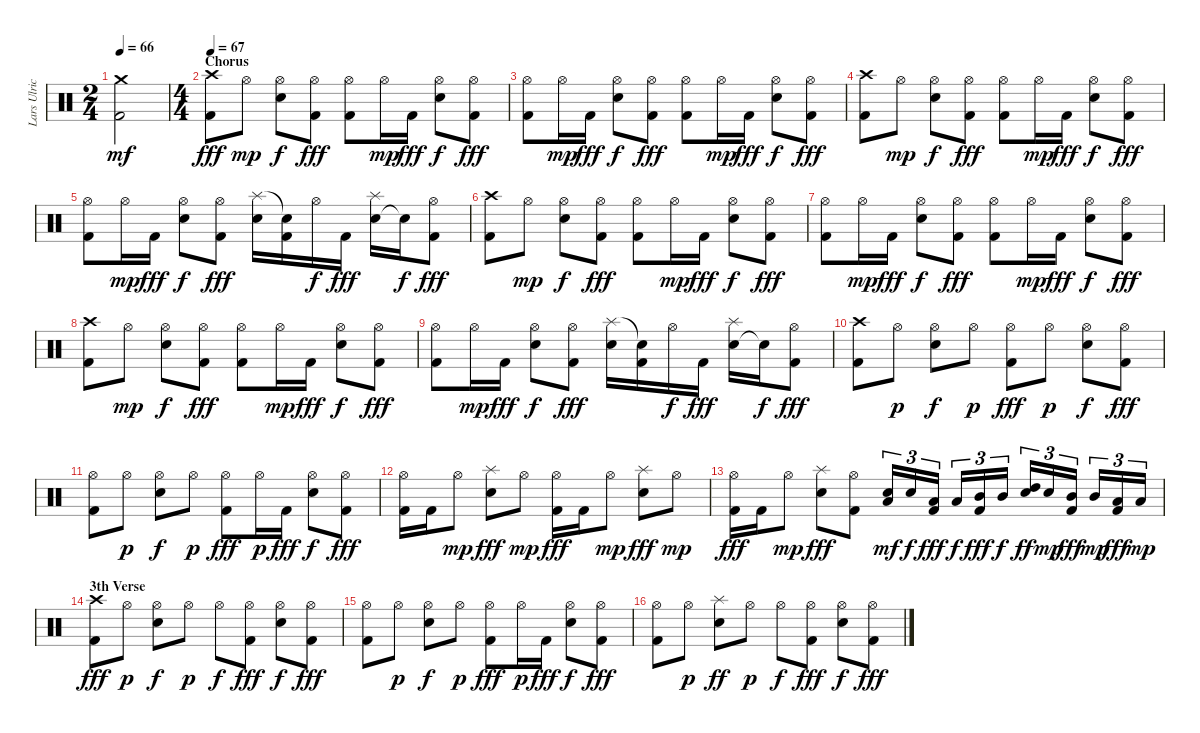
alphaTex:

\track ("Lars Ulrich (Drums)" "Lars Ulric") {instrument percussion}
\staff {score}
\articulation defaults
\ts (2 4)
\tempo 66
\clef neutral
\ks c
("Kick (hit) 2" "Crash medium (hit)").2{dy mf} |
\ts (4 4)
\section ("" "Chorus")
\tempo 67
("Kick (hit) 2" "Crash high (hit)").8{dy fff} "Hi-Hat (open)".8{dy mp} ("Hi-Hat (open)" "Snare (hit) 2").8{dy f} ("Hi-Hat (open)" "Kick (hit) 2").8{dy fff} ("Hi-Hat (open)" "Kick (hit) 2").8 "Hi-Hat (open)".16{dy mp} "Kick (hit) 2".16{dy fff} ("Hi-Hat (open)" "Snare (hit) 2").8{dy f} ("Hi-Hat (open)" "Kick (hit) 2").8{dy fff} |
("Hi-Hat (open)" "Kick (hit) 2").8 "Hi-Hat (open)".16{dy mp} "Kick (hit) 2".16{dy fff} ("Hi-Hat (open)" "Snare (hit) 2").8{dy f} ("Hi-Hat (open)" "Kick (hit) 2").8{dy fff} ("Hi-Hat (open)" "Kick (hit) 2").8 "Hi-Hat (open)".16{dy mp} "Kick (hit) 2".16{dy fff} ("Hi-Hat (open)" "Snare (hit) 2").8{dy f} ("Hi-Hat (open)" "Kick (hit) 2").8{dy fff} |
("Kick (hit) 2" "Crash high (hit)").8 "Hi-Hat (open)".8{dy mp} ("Hi-Hat (open)" "Snare (hit) 2").8{dy f} ("Hi-Hat (open)" "Kick (hit) 2").8{dy fff} ("Hi-Hat (open)" "Kick (hit) 2").8 "Hi-Hat (open)".16{dy mp} "Kick (hit) 2".16{dy fff} ("Hi-Hat (open)" "Snare (hit) 2").8{dy f} ("Hi-Hat (open)" "Kick (hit) 2").8{dy fff} |
("Hi-Hat (open)" "Kick (hit) 2").8 "Hi-Hat (open)".16{dy mp} "Kick (hit) 2".16{dy fff} ("Hi-Hat (open)" "Snare (hit) 2").8{dy f} ("Hi-Hat (open)" "Kick (hit) 2").8{dy fff} ("Snare (hit) 2" "Splash (hit)").16 ("Kick (hit) 2" "Snare (hit)"{t}).16 "Hi-Hat (open)".16{dy f} "Kick (hit) 2".16{dy fff} ("Snare (hit) 2" "Splash (hit)").16 "Snare (hit)"{t}.16{dy f} ("Hi-Hat (open)" "Kick (hit) 2").8{dy fff} |
("Kick (hit) 2" "Crash high (hit)").8 "Hi-Hat (open)".8{dy mp} ("Hi-Hat (open)" "Snare (hit) 2").8{dy f} ("Hi-Hat (open)" "Kick (hit) 2").8{dy fff} ("Hi-Hat (open)" "Kick (hit) 2").8 "Hi-Hat (open)".16{dy mp} "Kick (hit) 2".16{dy fff} ("Hi-Hat (open)" "Snare (hit) 2").8{dy f} ("Hi-Hat (open)" "Kick (hit) 2").8{dy fff} |
("Hi-Hat (open)" "Kick (hit) 2").8 "Hi-Hat (open)".16{dy mp} "Kick (hit) 2".16{dy fff} ("Hi-Hat (open)" "Snare (hit) 2").8{dy f} ("Hi-Hat (open)" "Kick (hit) 2").8{dy fff} ("Hi-Hat (open)" "Kick (hit) 2").8 "Hi-Hat (open)".16{dy mp} "Kick (hit) 2".16{dy fff} ("Hi-Hat (open)" "Snare (hit) 2").8{dy f} ("Hi-Hat (open)" "Kick (hit) 2").8{dy fff} |
("Kick (hit) 2" "Crash high (hit)").8 "Hi-Hat (open)".8{dy mp} ("Hi-Hat (open)" "Snare (hit) 2").8{dy f} ("Hi-Hat (open)" "Kick (hit) 2").8{dy fff} ("Hi-Hat (open)" "Kick (hit) 2").8 "Hi-Hat (open)".16{dy mp} "Kick (hit) 2".16{dy fff} ("Hi-Hat (open)" "Snare (hit) 2").8{dy f} ("Hi-Hat (open)" "Kick (hit) 2").8{dy fff} |
("Hi-Hat (open)" "Kick (hit) 2").8 "Hi-Hat (open)".16{dy mp} "Kick (hit) 2".16{dy fff} ("Hi-Hat (open)" "Snare (hit) 2").8{dy f} ("Hi-Hat (open)" "Kick (hit) 2").8{dy fff} ("Snare (hit) 2" "Splash (hit)").16 ("Kick (hit) 2" "Snare (hit)"{t}).16 "Hi-Hat (open)".16{dy f} "Kick (hit) 2".16{dy fff} ("Snare (hit) 2" "Splash (hit)").16 "Snare (hit)"{t}.16{dy f} ("Hi-Hat (open)" "Kick (hit) 2").8{dy fff} |
("Kick (hit) 2" "Crash high (hit)").8 "Hi-Hat (open)".8{dy p} ("Hi-Hat (open)" "Snare (hit) 2").8{dy f} "Hi-Hat (open)".8{dy p} ("Hi-Hat (open)" "Kick (hit) 2").8{dy fff} "Hi-Hat (open)".8{dy p} ("Hi-Hat (open)" "Snare (hit) 2").8{dy f} ("Hi-Hat (open)" "Kick (hit) 2").8{dy fff} |
("Hi-Hat (open)" "Kick (hit) 2").8 "Hi-Hat (open)".8{dy p} ("Hi-Hat (open)" "Snare (hit) 2").8{dy f} "Hi-Hat (open)".8{dy p} ("Hi-Hat (open)" "Kick (hit) 2").8{dy fff} "Hi-Hat (open)".16{dy p} "Kick (hit) 2".16{dy fff} ("Hi-Hat (open)" "Snare (hit) 2").8{dy f} ("Hi-Hat (open)" "Kick (hit) 2").8{dy fff} |
("Hi-Hat (open)" "Kick (hit) 2").16 "Kick (hit) 2".16 "Hi-Hat (open)".8{dy mp} ("Snare (hit) 2" "Splash (hit)").8{dy fff} "Hi-Hat (open)".8{dy mp} ("Hi-Hat (open)" "Kick (hit) 2").16{dy fff} "Kick (hit) 2".16 "Hi-Hat (open)".8{dy mp} ("Snare (hit) 2" "Splash (hit)").8{dy fff} "Hi-Hat (open)".8{dy mp} |
("Hi-Hat (open)" "Kick (hit) 2").16{dy fff} "Kick (hit) 2".16 "Hi-Hat (open)".8{dy mp} ("Snare (hit) 2" "Splash (hit)").8{dy fff} ("Hi-Hat (open)" "Kick (hit) 2").8 ("Snare (hit) 2" "Low Tom (hit)").16{tu (3 2) dy mf} "Snare (hit) 2".16{tu (3 2) dy f} ("Kick (hit) 2" "Low Tom (hit)").16{tu (3 2) dy fff} "Low Tom (hit)".16{tu (3 2) dy f} ("Kick (hit) 2" "Mid Tom (hit)").16{tu (3 2) dy fff} "Mid Tom (hit)".16{tu (3 2) dy f} ("Snare (hit) 2" "High Tom (hit)").16{tu (3 2) dy ff} "Snare (hit) 2".16{tu (3 2) dy mp} ("Kick (hit) 2" "Mid Tom (hit)").16{tu (3 2) dy fff} "Mid Tom (hit)".16{tu (3 2) dy mp} ("Kick (hit) 2" "Low Tom (hit)").16{tu (3 2) dy fff} "Low Tom (hit)".16{tu (3 2) dy mp} |
\section ("" "3th Verse")
("Kick (hit) 2" "Crash high (hit)").8{dy fff} "Hi-Hat (open)".8{dy p} ("Hi-Hat (open)" "Snare (hit) 2").8{dy f} "Hi-Hat (open)".8{dy p} "Hi-Hat (open)".8{dy f} ("Hi-Hat (open)" "Kick (hit) 2").8{dy fff} ("Hi-Hat (open)" "Snare (hit) 2").8{dy f} ("Hi-Hat (open)" "Kick (hit) 2").8{dy fff} |
("Hi-Hat (open)" "Kick (hit) 2").8 "Hi-Hat (open)".8{dy p} ("Hi-Hat (open)" "Snare (hit) 2").8{dy f} "Hi-Hat (open)".8{dy p} ("Hi-Hat (open)" "Kick (hit) 2").8{dy fff} "Hi-Hat (open)".16{dy p} "Kick (hit) 2".16{dy fff} ("Hi-Hat (open)" "Snare (hit) 2").8{dy f} ("Hi-Hat (open)" "Kick (hit) 2").8{dy fff} |
("Hi-Hat (open)" "Kick (hit) 2").8 "Hi-Hat (open)".8{dy p} ("Snare (hit) 2" "Splash (hit)").8{dy ff} "Hi-Hat (open)".8{dy p} "Hi-Hat (open)".8{dy f} ("Hi-Hat (open)" "Kick (hit) 2").8{dy fff} ("Hi-Hat (open)" "Snare (hit) 2").8{dy f} ("Hi-Hat (open)" "Kick (hit) 2").8{dy fff}
